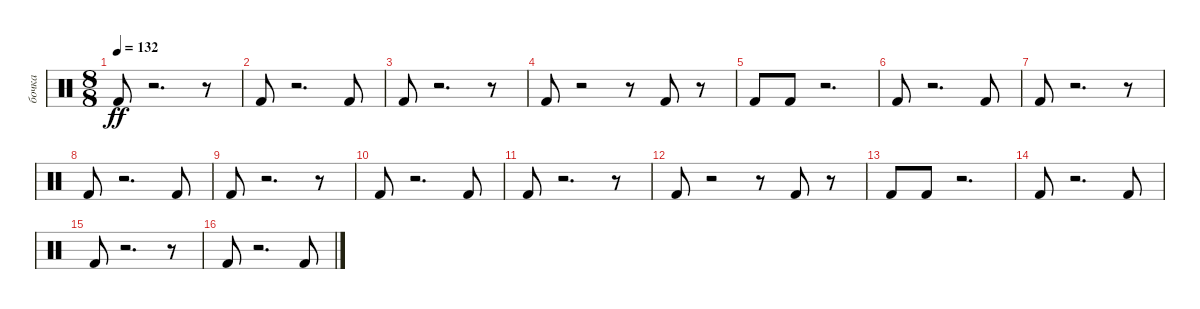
\track ("бочка" "бочка") {instrument percussion}
\staff {score}
\articulation defaults
\ts (8 8)
\tempo 132
\clef neutral
\ks c "Kick (hit) 2".8{dy ff}
r.2{d} r.8 |
"Kick (hit) 2".8 r.2{d} "Kick (hit) 2".8 |
"Kick (hit) 2".8 r.2{d} r.8 |
"Kick (hit) 2".8 r.2 r.8 "Kick (hit) 2".8 r.8 |
"Kick (hit) 2".8 "Kick (hit) 2".8 r.2{d} |
"Kick (hit) 2".8 r.2{d} "Kick (hit) 2".8 |
"Kick (hit) 2".8 r.2{d} r.8 |
"Kick (hit) 2".8 r.2{d} "Kick (hit) 2".8 |
"Kick (hit) 2".8 r.2{d} r.8 |
"Kick (hit) 2".8 r.2{d} "Kick (hit) 2".8{volume 16} |
"Kick (hit) 2".8 r.2{d} r.8 |
"Kick (hit) 2".8{volume 14} r.2 r.8 "Kick (hit) 2".8{volume 13} r.8 |
"Kick (hit) 2".8{volume 12} "Kick (hit) 2".8{volume 12} r.2{d} |
"Kick (hit) 2".8{volume 10} r.2{d} "Kick (hit) 2".8{volume 8} |
"Kick (hit) 2".8{volume 8} r.2{d} r.8 |
"Kick (hit) 2".8{volume 5} r.2{d} "Kick (hit) 2".8{volume 4}
